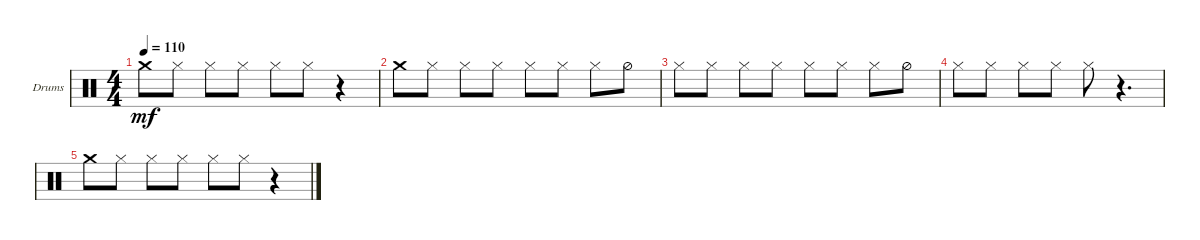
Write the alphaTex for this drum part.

\defaultSystemsLayout 4
\bracketExtendMode groupsimilarinstruments
\firstSystemTrackNameOrientation horizontal
\otherSystemsTrackNameOrientation horizontal
\track ("Drumkit" "Drums") {instrument percussion}
\staff {score}
\articulation defaults
\ts (4 4)
\tempo 110
\clef neutral
\ks c "Crash medium (hit)".8{dy mf} "Hi-Hat (closed)".8 "Hi-Hat (closed)".8 "Hi-Hat (closed)".8 "Hi-Hat (closed)".8 "Hi-Hat (closed)".8
r.4 |
"Crash medium (hit)".8 "Hi-Hat (closed)".8 "Hi-Hat (closed)".8 "Hi-Hat (closed)".8 "Hi-Hat (closed)".8 "Hi-Hat (closed)".8 "Hi-Hat (closed)".8 "Hi-Hat (half)".8 |
"Hi-Hat (closed)".8 "Hi-Hat (closed)".8 "Hi-Hat (closed)".8 "Hi-Hat (closed)".8 "Hi-Hat (closed)".8 "Hi-Hat (closed)".8 "Hi-Hat (closed)".8 "Hi-Hat (half)".8 |
"Hi-Hat (closed)".8 "Hi-Hat (closed)".8 "Hi-Hat (closed)".8 "Hi-Hat (closed)".8 "Hi-Hat (closed)".8 r.4{d} |
"Crash medium (hit)".8 "Hi-Hat (closed)".8 "Hi-Hat (closed)".8 "Hi-Hat (closed)".8 "Hi-Hat (closed)".8 "Hi-Hat (closed)".8 r.4
